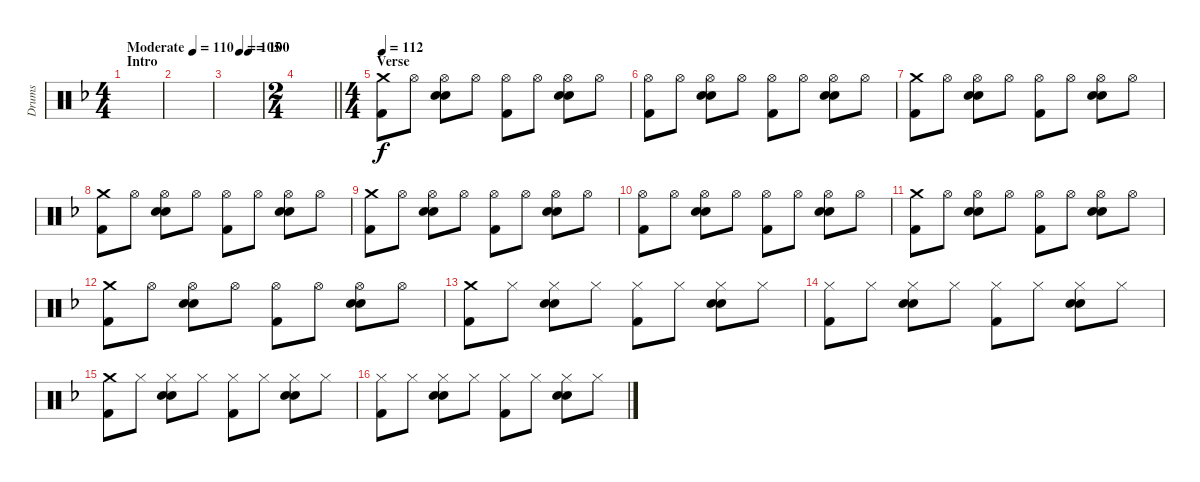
\track ("Drums" "Drums") {instrument percussion}
\staff {score}
\articulation defaults
\ts (4 4)
\section ("" "Intro")
\tempo (110 "Moderate")
\clef neutral
\ks dminor
|
|
\tempo (105 0.375)
\tempo (100 0.625)
|
\ts (2 4)
\barLineRight lightlight
|
\ts (4 4)
\section ("" "Verse")
\tempo 112
("Kick (hit) 2" "Crash medium (hit)").8 "Hi-Hat (open)".8 ("Electric Snare (hit)" "Snare (hit) 2" "Hi-Hat (open)").8 "Hi-Hat (open)".8 ("Kick (hit) 2" "Hi-Hat (open)").8 "Hi-Hat (open)".8 ("Electric Snare (hit)" "Snare (hit) 2" "Hi-Hat (open)").8 "Hi-Hat (open)".8 |
("Kick (hit) 2" "Hi-Hat (open)").8 "Hi-Hat (open)".8 ("Electric Snare (hit)" "Snare (hit) 2" "Hi-Hat (open)").8 "Hi-Hat (open)".8 ("Kick (hit) 2" "Hi-Hat (open)").8 "Hi-Hat (open)".8 ("Electric Snare (hit)" "Snare (hit) 2" "Hi-Hat (open)").8 "Hi-Hat (open)".8 |
("Kick (hit) 2" "Crash medium (hit)").8 "Hi-Hat (open)".8 ("Electric Snare (hit)" "Snare (hit) 2" "Hi-Hat (open)").8 "Hi-Hat (open)".8 ("Kick (hit) 2" "Hi-Hat (open)").8 "Hi-Hat (open)".8 ("Electric Snare (hit)" "Snare (hit) 2" "Hi-Hat (open)").8 "Hi-Hat (open)".8 |
("Kick (hit) 2" "Crash medium (hit)").8 "Hi-Hat (open)".8 ("Electric Snare (hit)" "Snare (hit) 2" "Hi-Hat (open)").8 "Hi-Hat (open)".8 ("Kick (hit) 2" "Hi-Hat (open)").8 "Hi-Hat (open)".8 ("Electric Snare (hit)" "Snare (hit) 2" "Hi-Hat (open)").8 "Hi-Hat (open)".8 |
("Kick (hit) 2" "Crash medium (hit)").8 "Hi-Hat (open)".8 ("Electric Snare (hit)" "Snare (hit) 2" "Hi-Hat (open)").8 "Hi-Hat (open)".8 ("Kick (hit) 2" "Hi-Hat (open)").8 "Hi-Hat (open)".8 ("Electric Snare (hit)" "Snare (hit) 2" "Hi-Hat (open)").8 "Hi-Hat (open)".8 |
("Kick (hit) 2" "Hi-Hat (open)").8 "Hi-Hat (open)".8 ("Electric Snare (hit)" "Snare (hit) 2" "Hi-Hat (open)").8 "Hi-Hat (open)".8 ("Kick (hit) 2" "Hi-Hat (open)").8 "Hi-Hat (open)".8 ("Electric Snare (hit)" "Snare (hit) 2" "Hi-Hat (open)").8 "Hi-Hat (open)".8 |
("Kick (hit) 2" "Crash medium (hit)").8 "Hi-Hat (open)".8 ("Electric Snare (hit)" "Snare (hit) 2" "Hi-Hat (open)").8 "Hi-Hat (open)".8 ("Kick (hit) 2" "Hi-Hat (open)").8 "Hi-Hat (open)".8 ("Electric Snare (hit)" "Snare (hit) 2" "Hi-Hat (open)").8 "Hi-Hat (open)".8 |
("Kick (hit) 2" "Crash medium (hit)").8 "Hi-Hat (open)".8 ("Electric Snare (hit)" "Snare (hit) 2" "Hi-Hat (open)").8 "Hi-Hat (open)".8 ("Kick (hit) 2" "Hi-Hat (open)").8 "Hi-Hat (open)".8 ("Electric Snare (hit)" "Snare (hit) 2" "Hi-Hat (open)").8 "Hi-Hat (open)".8 |
("Kick (hit) 2" "Crash medium (hit)").8 "Hi-Hat (closed)".8 ("Electric Snare (hit)" "Snare (hit) 2" "Hi-Hat (closed)").8 "Hi-Hat (closed)".8 ("Kick (hit) 2" "Hi-Hat (closed)").8 "Hi-Hat (closed)".8 ("Electric Snare (hit)" "Snare (hit) 2" "Hi-Hat (closed)").8 "Hi-Hat (closed)".8 |
("Kick (hit) 2" "Hi-Hat (closed)").8 "Hi-Hat (closed)".8 ("Electric Snare (hit)" "Snare (hit) 2" "Hi-Hat (closed)").8 "Hi-Hat (closed)".8 ("Kick (hit) 2" "Hi-Hat (closed)").8 "Hi-Hat (closed)".8 ("Electric Snare (hit)" "Snare (hit) 2" "Hi-Hat (closed)").8 "Hi-Hat (closed)".8 |
("Kick (hit) 2" "Crash medium (hit)").8 "Hi-Hat (closed)".8 ("Electric Snare (hit)" "Snare (hit) 2" "Hi-Hat (closed)").8 "Hi-Hat (closed)".8 ("Kick (hit) 2" "Hi-Hat (closed)").8 "Hi-Hat (closed)".8 ("Electric Snare (hit)" "Snare (hit) 2" "Hi-Hat (closed)").8 "Hi-Hat (closed)".8 |
("Kick (hit) 2" "Hi-Hat (closed)").8 "Hi-Hat (closed)".8 ("Electric Snare (hit)" "Snare (hit) 2" "Hi-Hat (closed)").8 "Hi-Hat (closed)".8 ("Kick (hit) 2" "Hi-Hat (closed)").8 "Hi-Hat (closed)".8 ("Electric Snare (hit)" "Snare (hit) 2" "Hi-Hat (closed)").8 "Hi-Hat (closed)".8
